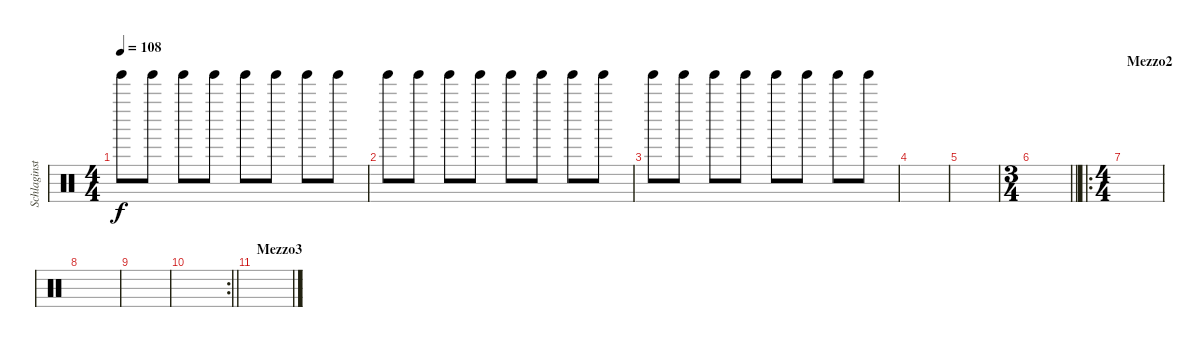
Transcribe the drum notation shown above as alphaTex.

\track ("Schlaginstrumente - Auswahl" "Schlaginst") {instrument percussion}
\staff {score}
\articulation defaults
\ts (4 4)
\tempo 108
\clef neutral
\ks c "Tinkle Bell (hit)".8{dy f} "Tinkle Bell (hit)".8 "Tinkle Bell (hit)".8 "Tinkle Bell (hit)".8 "Tinkle Bell (hit)".8 "Tinkle Bell (hit)".8 "Tinkle Bell (hit)".8 "Tinkle Bell (hit)".8
|
"Tinkle Bell (hit)".8 "Tinkle Bell (hit)".8 "Tinkle Bell (hit)".8 "Tinkle Bell (hit)".8 "Tinkle Bell (hit)".8 "Tinkle Bell (hit)".8 "Tinkle Bell (hit)".8 "Tinkle Bell (hit)".8 |
"Tinkle Bell (hit)".8 "Tinkle Bell (hit)".8 "Tinkle Bell (hit)".8 "Tinkle Bell (hit)".8 "Tinkle Bell (hit)".8 "Tinkle Bell (hit)".8 "Tinkle Bell (hit)".8 "Tinkle Bell (hit)".8 |
|
|
\ts (3 4)
\barLineRight lightlight
|
\ro
\ts (4 4)
\section ("" "Mezzo2")
|
|
|
\rc 2
\barLineRight lightlight
|
\section ("" "Mezzo3")
